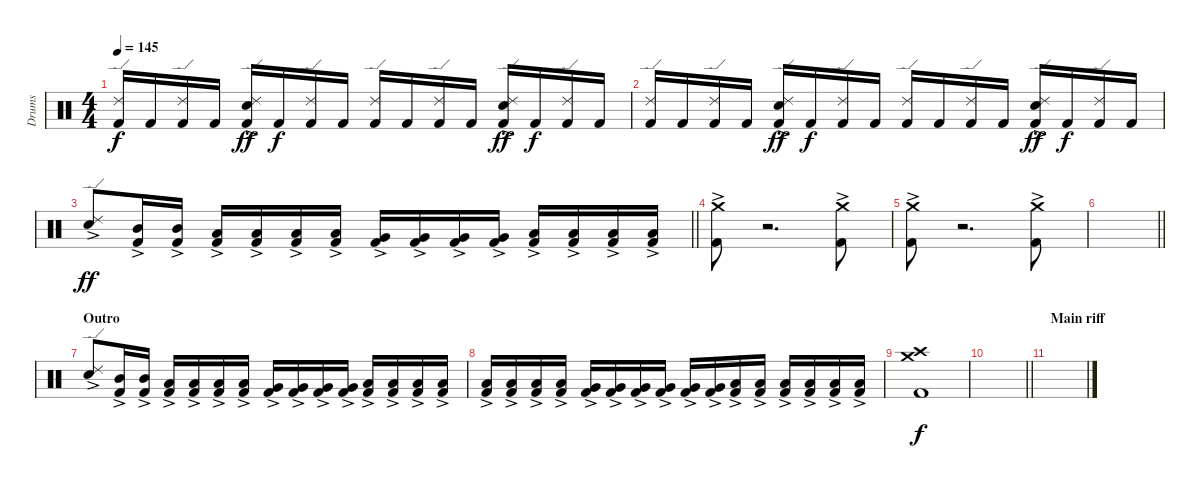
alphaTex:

\track ("Drums" "Drums") {instrument percussion}
\staff {score}
\articulation defaults
\ts (4 4)
\tempo 145
\clef neutral
\ks c
("Kick (hit) 2" "Ride (edge) 2").16{dy f} "Kick (hit) 2".16 ("Kick (hit) 2" "Ride (edge) 2").16 "Kick (hit) 2".16 ("Kick (hit) 2" "Snare (hit) 2"{ac} "Ride (edge) 2").16{dy ff} "Kick (hit) 2".16{dy f} ("Kick (hit) 2" "Ride (edge) 2").16 "Kick (hit) 2".16 ("Kick (hit) 2" "Ride (edge) 2").16 "Kick (hit) 2".16 ("Kick (hit) 2" "Ride (edge) 2").16 "Kick (hit) 2".16 ("Kick (hit) 2" "Snare (hit) 2"{ac} "Ride (edge) 2").16{dy ff} "Kick (hit) 2".16{dy f} ("Kick (hit) 2" "Ride (edge) 2").16 "Kick (hit) 2".16 |
("Kick (hit) 2" "Ride (edge) 2").16 "Kick (hit) 2".16 ("Kick (hit) 2" "Ride (edge) 2").16 "Kick (hit) 2".16 ("Kick (hit) 2" "Snare (hit) 2"{ac} "Ride (edge) 2").16{dy ff} "Kick (hit) 2".16{dy f} ("Kick (hit) 2" "Ride (edge) 2").16 "Kick (hit) 2".16 ("Kick (hit) 2" "Ride (edge) 2").16 "Kick (hit) 2".16 ("Kick (hit) 2" "Ride (edge) 2").16 "Kick (hit) 2".16 ("Kick (hit) 2" "Snare (hit) 2"{ac} "Ride (edge) 2").16{dy ff} "Kick (hit) 2".16{dy f} ("Kick (hit) 2" "Ride (edge) 2").16 "Kick (hit) 2".16 |
\barLineRight lightlight
("Snare (hit) 2"{ac} "Ride (edge) 2").8{dy ff} ("Kick (hit) 2" "Mid Tom (hit)"{ac}).16 ("Kick (hit) 2" "Mid Tom (hit)"{ac}).16 ("Kick (hit) 2" "Low Tom (hit)"{ac}).16 ("Kick (hit) 2" "Low Tom (hit)"{ac}).16 ("Kick (hit) 2" "Low Tom (hit)"{ac}).16 ("Kick (hit) 2" "Low Tom (hit)"{ac}).16 ("Kick (hit) 2" "Very Low Tom (hit)"{ac}).16 ("Kick (hit) 2" "Very Low Tom (hit)"{ac}).16 ("Kick (hit) 2" "Very Low Tom (hit)"{ac}).16 ("Kick (hit) 2" "Very Low Tom (hit)"{ac}).16 ("Kick (hit) 2" "Low Floor Tom (hit)"{ac}).16 ("Kick (hit) 2" "Low Floor Tom (hit)"{ac}).16 ("Kick (hit) 2" "Low Floor Tom (hit)"{ac}).16 ("Kick (hit) 2" "Low Floor Tom (hit)"{ac}).16 |
\section ("" "")
("Kick (hit) 2"{ac} "Crash medium (hit)").8 r.2{d} ("Kick (hit) 2"{ac} "Crash medium (hit)").8 |
("Kick (hit) 2"{ac} "Crash medium (hit)").8 r.2{d} ("Kick (hit) 2"{ac} "Crash medium (hit)").8 |
\barLineRight lightlight
|
\section ("" "Outro")
("Snare (hit) 2"{ac} "Ride (edge) 2").8 ("Kick (hit) 2" "Mid Tom (hit)"{ac}).16 ("Kick (hit) 2" "Mid Tom (hit)"{ac}).16 ("Kick (hit) 2" "Low Tom (hit)"{ac}).16 ("Kick (hit) 2" "Low Tom (hit)"{ac}).16 ("Kick (hit) 2" "Low Tom (hit)"{ac}).16 ("Kick (hit) 2" "Low Tom (hit)"{ac}).16 ("Kick (hit) 2" "Very Low Tom (hit)"{ac}).16 ("Kick (hit) 2" "Very Low Tom (hit)"{ac}).16 ("Kick (hit) 2" "Very Low Tom (hit)"{ac}).16 ("Kick (hit) 2" "Very Low Tom (hit)"{ac}).16 ("Kick (hit) 2" "Low Floor Tom (hit)"{ac}).16 ("Kick (hit) 2" "Low Floor Tom (hit)"{ac}).16 ("Kick (hit) 2" "Low Floor Tom (hit)"{ac}).16 ("Kick (hit) 2" "Low Floor Tom (hit)"{ac}).16 |
("Kick (hit) 2" "Low Tom (hit)"{ac}).16 ("Kick (hit) 2" "Low Tom (hit)"{ac}).16 ("Kick (hit) 2" "Low Tom (hit)"{ac}).16 ("Kick (hit) 2" "Low Tom (hit)"{ac}).16 ("Kick (hit) 2" "Very Low Tom (hit)"{ac}).16 ("Kick (hit) 2" "Very Low Tom (hit)"{ac}).16 ("Kick (hit) 2" "Very Low Tom (hit)"{ac}).16 ("Kick (hit) 2" "Very Low Tom (hit)"{ac}).16 ("Kick (hit) 2" "Very Low Tom (hit)"{ac}).16 ("Kick (hit) 2" "Very Low Tom (hit)"{ac}).16 ("Kick (hit) 2" "Low Floor Tom (hit)"{ac}).16 ("Kick (hit) 2" "Low Floor Tom (hit)"{ac}).16 ("Kick (hit) 2" "Low Floor Tom (hit)"{ac}).16 ("Kick (hit) 2" "Low Floor Tom (hit)"{ac}).16 ("Kick (hit) 2" "Low Floor Tom (hit)"{ac}).16 ("Kick (hit) 2" "Low Floor Tom (hit)"{ac}).16 |
("Kick (hit) 2" "Crash medium (hit)" "Crash high (hit)").1{dy f} |
\barLineRight lightlight
|
\section ("" "Main riff")
